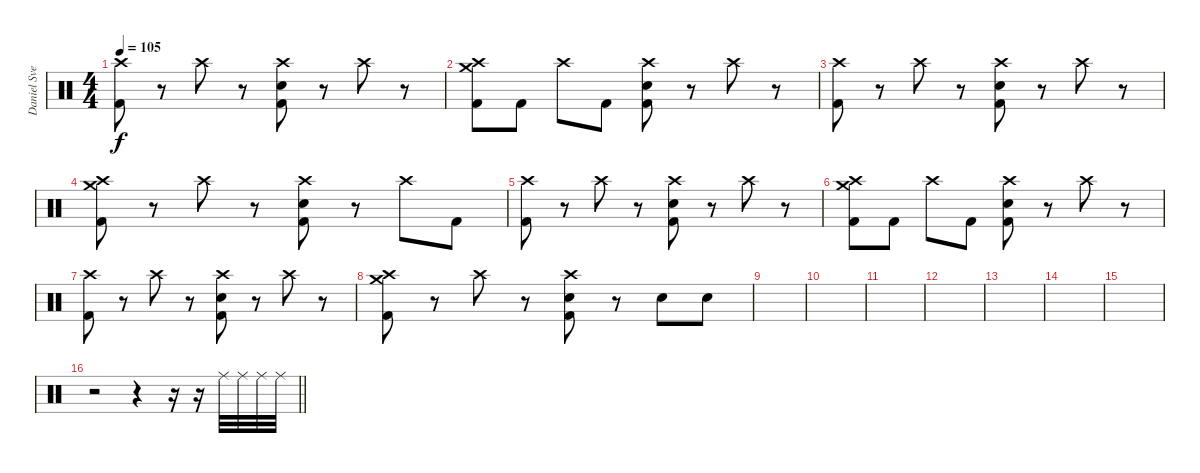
\track ("Daniel Svensson" "Daniel Sve") {instrument percussion}
\staff {score}
\articulation defaults
\ts (4 4)
\tempo 105
\clef neutral
\ks c
("Crash high (hit)" "Kick (hit) 2").8{dy f} r.8 "Crash high (hit)".8 r.8 ("Crash high (hit)" "Electric Snare (hit)" "Kick (hit) 2").8 r.8 "Crash high (hit)".8 r.8 |
("Crash high (hit)" "Crash medium (hit)" "Kick (hit) 2").8 "Kick (hit) 2".8 "Crash high (hit)".8 "Kick (hit) 2".8 ("Crash high (hit)" "Electric Snare (hit)" "Kick (hit) 2").8 r.8 "Crash high (hit)".8 r.8 |
("Crash high (hit)" "Kick (hit) 2").8 r.8 "Crash high (hit)".8 r.8 ("Crash high (hit)" "Electric Snare (hit)" "Kick (hit) 2").8 r.8 "Crash high (hit)".8 r.8 |
("Crash high (hit)" "Crash medium (hit)" "Kick (hit) 2").8 r.8 "Crash high (hit)".8 r.8 ("Crash high (hit)" "Electric Snare (hit)" "Kick (hit) 2").8 r.8 "Crash high (hit)".8 "Kick (hit) 2".8 |
("Crash high (hit)" "Kick (hit) 2").8 r.8 "Crash high (hit)".8 r.8 ("Crash high (hit)" "Electric Snare (hit)" "Kick (hit) 2").8 r.8 "Crash high (hit)".8 r.8 |
("Crash high (hit)" "Crash medium (hit)" "Kick (hit) 2").8 "Kick (hit) 2".8 "Crash high (hit)".8 "Kick (hit) 2".8 ("Crash high (hit)" "Electric Snare (hit)" "Kick (hit) 2").8 r.8 "Crash high (hit)".8 r.8 |
("Crash high (hit)" "Kick (hit) 2").8 r.8 "Crash high (hit)".8 r.8 ("Crash high (hit)" "Electric Snare (hit)" "Kick (hit) 2").8 r.8 "Crash high (hit)".8 r.8 |
("Crash high (hit)" "Crash medium (hit)" "Kick (hit) 2").8 r.8 "Crash high (hit)".8 r.8 ("Crash high (hit)" "Electric Snare (hit)" "Kick (hit) 2").8 r.8 "Electric Snare (hit)".8 "Electric Snare (hit)".8 |
|
|
|
|
|
|
|
\barLineRight lightlight
r.2 r.4 r.16 r.16 "Ride (middle)".32 "Ride (middle)".32 "Ride (middle)".32 "Ride (middle)".32
